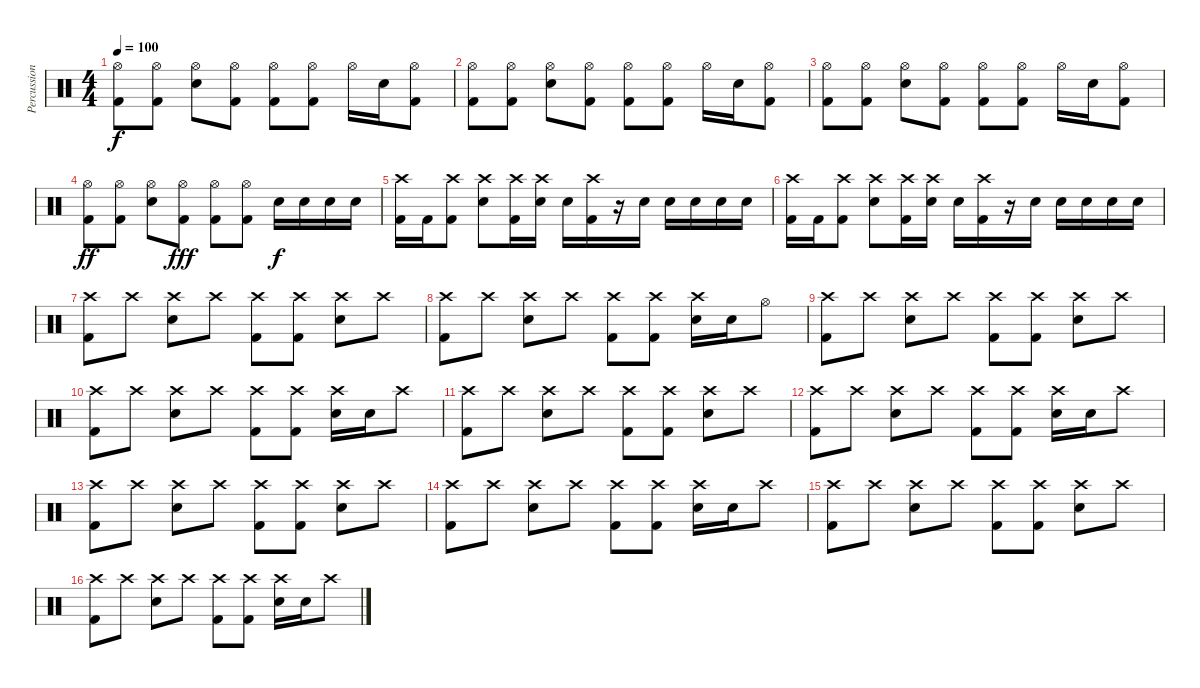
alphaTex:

\track ("Percussions" "Percussion") {instrument percussion}
\staff {score}
\articulation defaults
\ts (4 4)
\tempo 100
\clef neutral
\ks c
("Hi-Hat (open)" "Kick (hit) 2").8{dy f} ("Hi-Hat (open)" "Kick (hit) 2").8 ("Hi-Hat (open)" "Snare (hit) 2").8 ("Hi-Hat (open)" "Kick (hit) 2").8 ("Hi-Hat (open)" "Kick (hit) 2").8 ("Hi-Hat (open)" "Kick (hit) 2").8 "Hi-Hat (open)".16 "Snare (hit) 2".16 ("Hi-Hat (open)" "Kick (hit) 2").8 |
("Hi-Hat (open)" "Kick (hit) 2").8 ("Hi-Hat (open)" "Kick (hit) 2").8 ("Hi-Hat (open)" "Snare (hit) 2").8 ("Hi-Hat (open)" "Kick (hit) 2").8 ("Hi-Hat (open)" "Kick (hit) 2").8 ("Hi-Hat (open)" "Kick (hit) 2").8 "Hi-Hat (open)".16 "Snare (hit) 2".16 ("Hi-Hat (open)" "Kick (hit) 2").8 |
("Hi-Hat (open)" "Kick (hit) 2").8 ("Hi-Hat (open)" "Kick (hit) 2").8 ("Hi-Hat (open)" "Snare (hit) 2").8 ("Hi-Hat (open)" "Kick (hit) 2").8 ("Hi-Hat (open)" "Kick (hit) 2").8 ("Hi-Hat (open)" "Kick (hit) 2").8 "Hi-Hat (open)".16 "Snare (hit) 2".16 ("Hi-Hat (open)" "Kick (hit) 2").8 |
("Hi-Hat (open)" "Kick (hit) 2").8{dy ff} ("Hi-Hat (open)" "Kick (hit) 2").8 ("Hi-Hat (open)" "Snare (hit) 2").8 ("Hi-Hat (open)" "Kick (hit) 2").8{dy fff} ("Hi-Hat (open)" "Kick (hit) 2").8 ("Hi-Hat (open)" "Kick (hit) 2").8 "Snare (hit) 2".16{dy f} "Snare (hit) 2".16 "Snare (hit) 2".16 "Snare (hit) 2".16 |
("Crash high (hit)" "Kick (hit) 2").16 "Kick (hit) 2".16 ("Crash high (hit)" "Kick (hit) 2").8 ("Crash high (hit)" "Snare (hit) 2").8 ("Crash high (hit)" "Kick (hit) 2").16 ("Crash high (hit)" "Snare (hit) 2").16 "Snare (hit) 2".16 ("Crash high (hit)" "Kick (hit) 2").16 r.16 "Snare (hit) 2".16 "Snare (hit) 2".16 "Snare (hit) 2".16 "Snare (hit) 2".16 "Snare (hit) 2".16 |
("Crash high (hit)" "Kick (hit) 2").16 "Kick (hit) 2".16 ("Crash high (hit)" "Kick (hit) 2").8 ("Crash high (hit)" "Snare (hit) 2").8 ("Crash high (hit)" "Kick (hit) 2").16 ("Crash high (hit)" "Snare (hit) 2").16 "Snare (hit) 2".16 ("Crash high (hit)" "Kick (hit) 2").16 r.16 "Snare (hit) 2".16 "Snare (hit) 2".16 "Snare (hit) 2".16 "Snare (hit) 2".16 "Snare (hit) 2".16 |
("Crash high (hit)" "Kick (hit) 2").8 "Crash high (hit)".8 ("Crash high (hit)" "Snare (hit) 2").8 "Crash high (hit)".8 ("Crash high (hit)" "Kick (hit) 2").8 ("Crash high (hit)" "Kick (hit) 2").8 ("Crash high (hit)" "Snare (hit) 2").8 "Crash high (hit)".8 |
("Crash high (hit)" "Kick (hit) 2").8 "Crash high (hit)".8 ("Crash high (hit)" "Snare (hit) 2").8 "Crash high (hit)".8 ("Crash high (hit)" "Kick (hit) 2").8 ("Crash high (hit)" "Kick (hit) 2").8 ("Crash high (hit)" "Snare (hit) 2").16 "Snare (hit) 2".16 "Hi-Hat (open)".8 |
("Crash high (hit)" "Kick (hit) 2").8 "Crash high (hit)".8 ("Crash high (hit)" "Snare (hit) 2").8 "Crash high (hit)".8 ("Crash high (hit)" "Kick (hit) 2").8 ("Crash high (hit)" "Kick (hit) 2").8 ("Crash high (hit)" "Snare (hit) 2").8 "Crash high (hit)".8 |
("Crash high (hit)" "Kick (hit) 2").8 "Crash high (hit)".8 ("Crash high (hit)" "Snare (hit) 2").8 "Crash high (hit)".8 ("Crash high (hit)" "Kick (hit) 2").8 ("Crash high (hit)" "Kick (hit) 2").8 ("Crash high (hit)" "Snare (hit) 2").16 "Snare (hit) 2".16 "Crash high (hit)".8 |
("Crash high (hit)" "Kick (hit) 2").8 "Crash high (hit)".8 ("Crash high (hit)" "Snare (hit) 2").8 "Crash high (hit)".8 ("Crash high (hit)" "Kick (hit) 2").8 ("Crash high (hit)" "Kick (hit) 2").8 ("Crash high (hit)" "Snare (hit) 2").8 "Crash high (hit)".8 |
("Crash high (hit)" "Kick (hit) 2").8 "Crash high (hit)".8 ("Crash high (hit)" "Snare (hit) 2").8 "Crash high (hit)".8 ("Crash high (hit)" "Kick (hit) 2").8 ("Crash high (hit)" "Kick (hit) 2").8 ("Crash high (hit)" "Snare (hit) 2").16 "Snare (hit) 2".16 "Crash high (hit)".8 |
("Crash high (hit)" "Kick (hit) 2").8 "Crash high (hit)".8 ("Crash high (hit)" "Snare (hit) 2").8 "Crash high (hit)".8 ("Crash high (hit)" "Kick (hit) 2").8 ("Crash high (hit)" "Kick (hit) 2").8 ("Crash high (hit)" "Snare (hit) 2").8 "Crash high (hit)".8 |
("Crash high (hit)" "Kick (hit) 2").8 "Crash high (hit)".8 ("Crash high (hit)" "Snare (hit) 2").8 "Crash high (hit)".8 ("Crash high (hit)" "Kick (hit) 2").8 ("Crash high (hit)" "Kick (hit) 2").8 ("Crash high (hit)" "Snare (hit) 2").16 "Snare (hit) 2".16 "Crash high (hit)".8 |
("Crash high (hit)" "Kick (hit) 2").8 "Crash high (hit)".8 ("Crash high (hit)" "Snare (hit) 2").8 "Crash high (hit)".8 ("Crash high (hit)" "Kick (hit) 2").8 ("Crash high (hit)" "Kick (hit) 2").8 ("Crash high (hit)" "Snare (hit) 2").8 "Crash high (hit)".8 |
("Crash high (hit)" "Kick (hit) 2").8 "Crash high (hit)".8 ("Crash high (hit)" "Snare (hit) 2").8 "Crash high (hit)".8 ("Crash high (hit)" "Kick (hit) 2").8 ("Crash high (hit)" "Kick (hit) 2").8 ("Crash high (hit)" "Snare (hit) 2").16 "Snare (hit) 2".16 "Crash high (hit)".8
